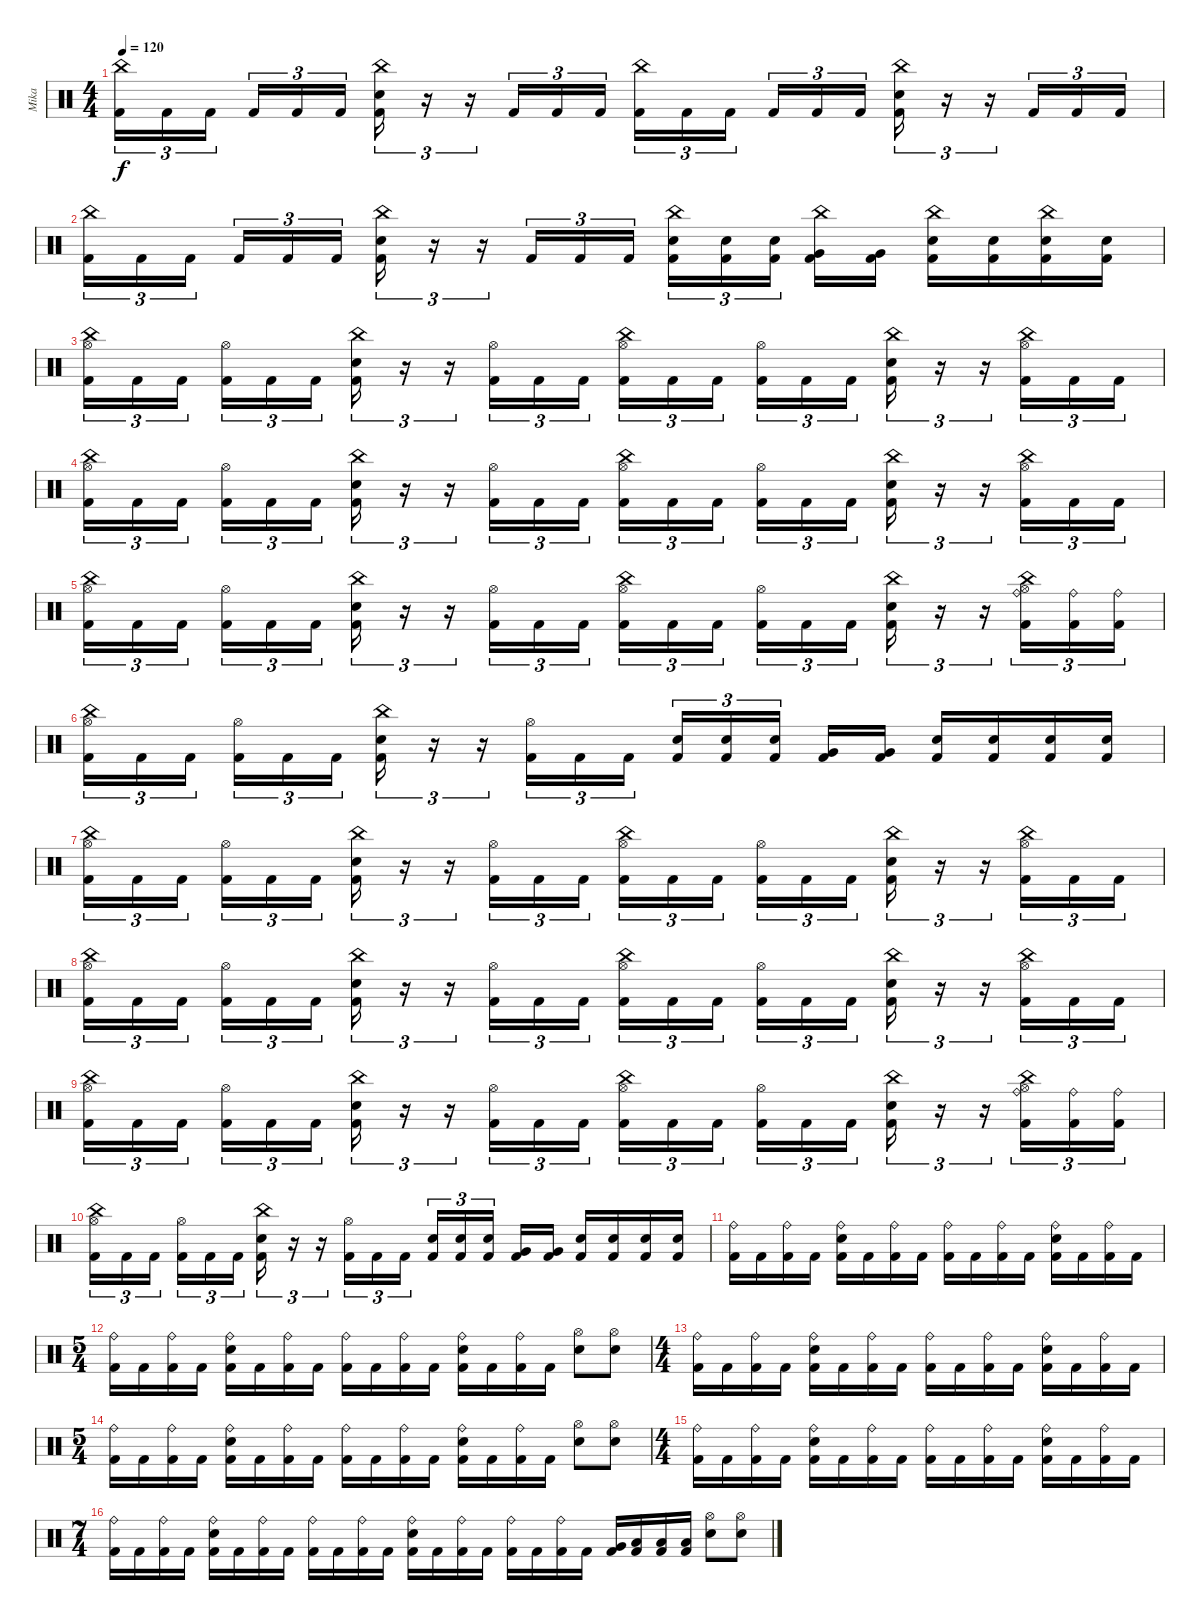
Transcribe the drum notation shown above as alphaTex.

\track ("Mika" "Mika") {instrument percussion}
\staff {score}
\articulation defaults
\ts (4 4)
\tempo 120
\clef neutral
\ks c
("China (hit)" "Kick (hit) 2").16{tu (3 2) dy f} "Kick (hit) 2".16{tu (3 2)} "Kick (hit) 2".16{tu (3 2) beam splitsecondary} "Kick (hit) 2".16{tu (3 2)} "Kick (hit) 2".16{tu (3 2)} "Kick (hit) 2".16{tu (3 2)} ("China (hit)" "Electric Snare (hit)" "Kick (hit) 2").16{tu (3 2)} r.16{tu (3 2)} r.16{tu (3 2)} "Kick (hit) 2".16{tu (3 2)} "Kick (hit) 2".16{tu (3 2)} "Kick (hit) 2".16{tu (3 2)} ("China (hit)" "Kick (hit) 2").16{tu (3 2)} "Kick (hit) 2".16{tu (3 2)} "Kick (hit) 2".16{tu (3 2) beam splitsecondary} "Kick (hit) 2".16{tu (3 2)} "Kick (hit) 2".16{tu (3 2)} "Kick (hit) 2".16{tu (3 2)} ("China (hit)" "Electric Snare (hit)" "Kick (hit) 2").16{tu (3 2)} r.16{tu (3 2)} r.16{tu (3 2)} "Kick (hit) 2".16{tu (3 2)} "Kick (hit) 2".16{tu (3 2)} "Kick (hit) 2".16{tu (3 2)} |
("China (hit)" "Kick (hit) 2").16{tu (3 2)} "Kick (hit) 2".16{tu (3 2)} "Kick (hit) 2".16{tu (3 2) beam splitsecondary} "Kick (hit) 2".16{tu (3 2)} "Kick (hit) 2".16{tu (3 2)} "Kick (hit) 2".16{tu (3 2)} ("China (hit)" "Electric Snare (hit)" "Kick (hit) 2").16{tu (3 2)} r.16{tu (3 2)} r.16{tu (3 2)} "Kick (hit) 2".16{tu (3 2)} "Kick (hit) 2".16{tu (3 2)} "Kick (hit) 2".16{tu (3 2)} ("China (hit)" "Electric Snare (hit)" "Kick (hit) 2").16{tu (3 2)} ("Electric Snare (hit)" "Kick (hit) 2").16{tu (3 2)} ("Electric Snare (hit)" "Kick (hit) 2").16{tu (3 2) beam splitsecondary} ("China (hit)" "Very Low Tom (hit)" "Kick (hit) 2").16 ("Very Low Tom (hit)" "Kick (hit) 2").16 ("China (hit)" "Electric Snare (hit)" "Kick (hit) 2").16 ("Electric Snare (hit)" "Kick (hit) 2").16 ("China (hit)" "Snare (hit) 2" "Kick (hit) 2").16 ("Snare (hit) 2" "Kick (hit) 2").16 |
("China (hit)" "Hi-Hat (open)" "Kick (hit) 2").16{tu (3 2)} "Kick (hit) 2".16{tu (3 2)} "Kick (hit) 2".16{tu (3 2) beam splitsecondary} ("Hi-Hat (open)" "Kick (hit) 2").16{tu (3 2)} "Kick (hit) 2".16{tu (3 2)} "Kick (hit) 2".16{tu (3 2)} ("Electric Snare (hit)" "China (hit)" "Kick (hit) 2").16{tu (3 2)} r.16{tu (3 2)} r.16{tu (3 2)} ("Hi-Hat (open)" "Kick (hit) 2").16{tu (3 2)} "Kick (hit) 2".16{tu (3 2)} "Kick (hit) 2".16{tu (3 2)} ("China (hit)" "Hi-Hat (open)" "Kick (hit) 2").16{tu (3 2)} "Kick (hit) 2".16{tu (3 2)} "Kick (hit) 2".16{tu (3 2) beam splitsecondary} ("Hi-Hat (open)" "Kick (hit) 2").16{tu (3 2)} "Kick (hit) 2".16{tu (3 2)} "Kick (hit) 2".16{tu (3 2)} ("Electric Snare (hit)" "China (hit)" "Kick (hit) 2").16{tu (3 2)} r.16{tu (3 2)} r.16{tu (3 2)} ("China (hit)" "Hi-Hat (open)" "Kick (hit) 2").16{tu (3 2)} "Kick (hit) 2".16{tu (3 2)} "Kick (hit) 2".16{tu (3 2)} |
("China (hit)" "Hi-Hat (open)" "Kick (hit) 2").16{tu (3 2)} "Kick (hit) 2".16{tu (3 2)} "Kick (hit) 2".16{tu (3 2) beam splitsecondary} ("Hi-Hat (open)" "Kick (hit) 2").16{tu (3 2)} "Kick (hit) 2".16{tu (3 2)} "Kick (hit) 2".16{tu (3 2)} ("Electric Snare (hit)" "China (hit)" "Kick (hit) 2").16{tu (3 2)} r.16{tu (3 2)} r.16{tu (3 2)} ("Hi-Hat (open)" "Kick (hit) 2").16{tu (3 2)} "Kick (hit) 2".16{tu (3 2)} "Kick (hit) 2".16{tu (3 2)} ("China (hit)" "Hi-Hat (open)" "Kick (hit) 2").16{tu (3 2)} "Kick (hit) 2".16{tu (3 2)} "Kick (hit) 2".16{tu (3 2) beam splitsecondary} ("Hi-Hat (open)" "Kick (hit) 2").16{tu (3 2)} "Kick (hit) 2".16{tu (3 2)} "Kick (hit) 2".16{tu (3 2)} ("Electric Snare (hit)" "China (hit)" "Kick (hit) 2").16{tu (3 2)} r.16{tu (3 2)} r.16{tu (3 2)} ("China (hit)" "Hi-Hat (open)" "Kick (hit) 2").16{tu (3 2)} "Kick (hit) 2".16{tu (3 2)} "Kick (hit) 2".16{tu (3 2)} |
("China (hit)" "Hi-Hat (open)" "Kick (hit) 2").16{tu (3 2)} "Kick (hit) 2".16{tu (3 2)} "Kick (hit) 2".16{tu (3 2) beam splitsecondary} ("Hi-Hat (open)" "Kick (hit) 2").16{tu (3 2)} "Kick (hit) 2".16{tu (3 2)} "Kick (hit) 2".16{tu (3 2)} ("Electric Snare (hit)" "China (hit)" "Kick (hit) 2").16{tu (3 2)} r.16{tu (3 2)} r.16{tu (3 2)} ("Hi-Hat (open)" "Kick (hit) 2").16{tu (3 2)} "Kick (hit) 2".16{tu (3 2)} "Kick (hit) 2".16{tu (3 2)} ("China (hit)" "Hi-Hat (open)" "Kick (hit) 2").16{tu (3 2)} "Kick (hit) 2".16{tu (3 2)} "Kick (hit) 2".16{tu (3 2) beam splitsecondary} ("Hi-Hat (open)" "Kick (hit) 2").16{tu (3 2)} "Kick (hit) 2".16{tu (3 2)} "Kick (hit) 2".16{tu (3 2)} ("Electric Snare (hit)" "China (hit)" "Kick (hit) 2").16{tu (3 2)} r.16{tu (3 2)} r.16{tu (3 2)} ("Ride (bell)" "China (hit)" "Hi-Hat (open)" "Kick (hit) 2").16{tu (3 2)} ("Ride (bell)" "Kick (hit) 2").16{tu (3 2)} ("Ride (bell)" "Kick (hit) 2").16{tu (3 2)} |
("China (hit)" "Hi-Hat (open)" "Kick (hit) 2").16{tu (3 2)} "Kick (hit) 2".16{tu (3 2)} "Kick (hit) 2".16{tu (3 2) beam splitsecondary} ("Hi-Hat (open)" "Kick (hit) 2").16{tu (3 2)} "Kick (hit) 2".16{tu (3 2)} "Kick (hit) 2".16{tu (3 2)} ("Electric Snare (hit)" "China (hit)" "Kick (hit) 2").16{tu (3 2)} r.16{tu (3 2)} r.16{tu (3 2)} ("Hi-Hat (open)" "Kick (hit) 2").16{tu (3 2)} "Kick (hit) 2".16{tu (3 2)} "Kick (hit) 2".16{tu (3 2)} ("Electric Snare (hit)" "Kick (hit) 2").16{tu (3 2)} ("Electric Snare (hit)" "Kick (hit) 2").16{tu (3 2)} ("Electric Snare (hit)" "Kick (hit) 2").16{tu (3 2) beam splitsecondary} ("Very Low Tom (hit)" "Kick (hit) 2").16 ("Very Low Tom (hit)" "Kick (hit) 2").16 ("Electric Snare (hit)" "Kick (hit) 2").16 ("Electric Snare (hit)" "Kick (hit) 2").16 ("Snare (hit) 2" "Kick (hit) 2").16 ("Snare (hit) 2" "Kick (hit) 2").16 |
("China (hit)" "Hi-Hat (open)" "Kick (hit) 2").16{tu (3 2)} "Kick (hit) 2".16{tu (3 2)} "Kick (hit) 2".16{tu (3 2) beam splitsecondary} ("Hi-Hat (open)" "Kick (hit) 2").16{tu (3 2)} "Kick (hit) 2".16{tu (3 2)} "Kick (hit) 2".16{tu (3 2)} ("Electric Snare (hit)" "China (hit)" "Kick (hit) 2").16{tu (3 2)} r.16{tu (3 2)} r.16{tu (3 2)} ("Hi-Hat (open)" "Kick (hit) 2").16{tu (3 2)} "Kick (hit) 2".16{tu (3 2)} "Kick (hit) 2".16{tu (3 2)} ("China (hit)" "Hi-Hat (open)" "Kick (hit) 2").16{tu (3 2)} "Kick (hit) 2".16{tu (3 2)} "Kick (hit) 2".16{tu (3 2) beam splitsecondary} ("Hi-Hat (open)" "Kick (hit) 2").16{tu (3 2)} "Kick (hit) 2".16{tu (3 2)} "Kick (hit) 2".16{tu (3 2)} ("Electric Snare (hit)" "China (hit)" "Kick (hit) 2").16{tu (3 2)} r.16{tu (3 2)} r.16{tu (3 2)} ("China (hit)" "Hi-Hat (open)" "Kick (hit) 2").16{tu (3 2)} "Kick (hit) 2".16{tu (3 2)} "Kick (hit) 2".16{tu (3 2)} |
("China (hit)" "Hi-Hat (open)" "Kick (hit) 2").16{tu (3 2)} "Kick (hit) 2".16{tu (3 2)} "Kick (hit) 2".16{tu (3 2) beam splitsecondary} ("Hi-Hat (open)" "Kick (hit) 2").16{tu (3 2)} "Kick (hit) 2".16{tu (3 2)} "Kick (hit) 2".16{tu (3 2)} ("Electric Snare (hit)" "China (hit)" "Kick (hit) 2").16{tu (3 2)} r.16{tu (3 2)} r.16{tu (3 2)} ("Hi-Hat (open)" "Kick (hit) 2").16{tu (3 2)} "Kick (hit) 2".16{tu (3 2)} "Kick (hit) 2".16{tu (3 2)} ("China (hit)" "Hi-Hat (open)" "Kick (hit) 2").16{tu (3 2)} "Kick (hit) 2".16{tu (3 2)} "Kick (hit) 2".16{tu (3 2) beam splitsecondary} ("Hi-Hat (open)" "Kick (hit) 2").16{tu (3 2)} "Kick (hit) 2".16{tu (3 2)} "Kick (hit) 2".16{tu (3 2)} ("Electric Snare (hit)" "China (hit)" "Kick (hit) 2").16{tu (3 2)} r.16{tu (3 2)} r.16{tu (3 2)} ("China (hit)" "Hi-Hat (open)" "Kick (hit) 2").16{tu (3 2)} "Kick (hit) 2".16{tu (3 2)} "Kick (hit) 2".16{tu (3 2)} |
("China (hit)" "Hi-Hat (open)" "Kick (hit) 2").16{tu (3 2)} "Kick (hit) 2".16{tu (3 2)} "Kick (hit) 2".16{tu (3 2) beam splitsecondary} ("Hi-Hat (open)" "Kick (hit) 2").16{tu (3 2)} "Kick (hit) 2".16{tu (3 2)} "Kick (hit) 2".16{tu (3 2)} ("Electric Snare (hit)" "China (hit)" "Kick (hit) 2").16{tu (3 2)} r.16{tu (3 2)} r.16{tu (3 2)} ("Hi-Hat (open)" "Kick (hit) 2").16{tu (3 2)} "Kick (hit) 2".16{tu (3 2)} "Kick (hit) 2".16{tu (3 2)} ("China (hit)" "Hi-Hat (open)" "Kick (hit) 2").16{tu (3 2)} "Kick (hit) 2".16{tu (3 2)} "Kick (hit) 2".16{tu (3 2) beam splitsecondary} ("Hi-Hat (open)" "Kick (hit) 2").16{tu (3 2)} "Kick (hit) 2".16{tu (3 2)} "Kick (hit) 2".16{tu (3 2)} ("Electric Snare (hit)" "China (hit)" "Kick (hit) 2").16{tu (3 2)} r.16{tu (3 2)} r.16{tu (3 2)} ("Ride (bell)" "China (hit)" "Hi-Hat (open)" "Kick (hit) 2").16{tu (3 2)} ("Ride (bell)" "Kick (hit) 2").16{tu (3 2)} ("Ride (bell)" "Kick (hit) 2").16{tu (3 2)} |
("China (hit)" "Hi-Hat (open)" "Kick (hit) 2").16{tu (3 2)} "Kick (hit) 2".16{tu (3 2)} "Kick (hit) 2".16{tu (3 2) beam splitsecondary} ("Hi-Hat (open)" "Kick (hit) 2").16{tu (3 2)} "Kick (hit) 2".16{tu (3 2)} "Kick (hit) 2".16{tu (3 2)} ("Electric Snare (hit)" "China (hit)" "Kick (hit) 2").16{tu (3 2)} r.16{tu (3 2)} r.16{tu (3 2)} ("Hi-Hat (open)" "Kick (hit) 2").16{tu (3 2)} "Kick (hit) 2".16{tu (3 2)} "Kick (hit) 2".16{tu (3 2)} ("Electric Snare (hit)" "Kick (hit) 2").16{tu (3 2)} ("Electric Snare (hit)" "Kick (hit) 2").16{tu (3 2)} ("Electric Snare (hit)" "Kick (hit) 2").16{tu (3 2) beam splitsecondary} ("Very Low Tom (hit)" "Kick (hit) 2").16 ("Very Low Tom (hit)" "Kick (hit) 2").16 ("Electric Snare (hit)" "Kick (hit) 2").16 ("Electric Snare (hit)" "Kick (hit) 2").16 ("Snare (hit) 2" "Kick (hit) 2").16 ("Snare (hit) 2" "Kick (hit) 2").16 |
("Ride (bell)" "Kick (hit) 2").16 "Kick (hit) 2".16 ("Ride (bell)" "Kick (hit) 2").16 "Kick (hit) 2".16 ("Ride (bell)" "Electric Snare (hit)" "Kick (hit) 2").16 "Kick (hit) 2".16 ("Ride (bell)" "Kick (hit) 2").16 "Kick (hit) 2".16 ("Ride (bell)" "Kick (hit) 2").16 "Kick (hit) 2".16 ("Ride (bell)" "Kick (hit) 2").16 "Kick (hit) 2".16 ("Ride (bell)" "Electric Snare (hit)" "Kick (hit) 2").16 "Kick (hit) 2".16 ("Ride (bell)" "Kick (hit) 2").16 "Kick (hit) 2".16 |
\ts (5 4)
("Ride (bell)" "Kick (hit) 2").16 "Kick (hit) 2".16 ("Ride (bell)" "Kick (hit) 2").16 "Kick (hit) 2".16 ("Ride (bell)" "Electric Snare (hit)" "Kick (hit) 2").16 "Kick (hit) 2".16 ("Ride (bell)" "Kick (hit) 2").16 "Kick (hit) 2".16 ("Ride (bell)" "Kick (hit) 2").16 "Kick (hit) 2".16 ("Ride (bell)" "Kick (hit) 2").16 "Kick (hit) 2".16 ("Ride (bell)" "Electric Snare (hit)" "Kick (hit) 2").16 "Kick (hit) 2".16 ("Ride (bell)" "Kick (hit) 2").16 "Kick (hit) 2".16 ("Hi-Hat (open)" "Electric Snare (hit)").8 ("Hi-Hat (open)" "Electric Snare (hit)").8 |
\ts (4 4)
("Ride (bell)" "Kick (hit) 2").16 "Kick (hit) 2".16 ("Ride (bell)" "Kick (hit) 2").16 "Kick (hit) 2".16 ("Ride (bell)" "Electric Snare (hit)" "Kick (hit) 2").16 "Kick (hit) 2".16 ("Ride (bell)" "Kick (hit) 2").16 "Kick (hit) 2".16 ("Ride (bell)" "Kick (hit) 2").16 "Kick (hit) 2".16 ("Ride (bell)" "Kick (hit) 2").16 "Kick (hit) 2".16 ("Ride (bell)" "Electric Snare (hit)" "Kick (hit) 2").16 "Kick (hit) 2".16 ("Ride (bell)" "Kick (hit) 2").16 "Kick (hit) 2".16 |
\ts (5 4)
("Ride (bell)" "Kick (hit) 2").16 "Kick (hit) 2".16 ("Ride (bell)" "Kick (hit) 2").16 "Kick (hit) 2".16 ("Ride (bell)" "Electric Snare (hit)" "Kick (hit) 2").16 "Kick (hit) 2".16 ("Ride (bell)" "Kick (hit) 2").16 "Kick (hit) 2".16 ("Ride (bell)" "Kick (hit) 2").16 "Kick (hit) 2".16 ("Ride (bell)" "Kick (hit) 2").16 "Kick (hit) 2".16 ("Ride (bell)" "Electric Snare (hit)" "Kick (hit) 2").16 "Kick (hit) 2".16 ("Ride (bell)" "Kick (hit) 2").16 "Kick (hit) 2".16 ("Hi-Hat (open)" "Electric Snare (hit)").8 ("Hi-Hat (open)" "Electric Snare (hit)").8 |
\ts (4 4)
("Ride (bell)" "Kick (hit) 2").16 "Kick (hit) 2".16 ("Ride (bell)" "Kick (hit) 2").16 "Kick (hit) 2".16 ("Ride (bell)" "Electric Snare (hit)" "Kick (hit) 2").16 "Kick (hit) 2".16 ("Ride (bell)" "Kick (hit) 2").16 "Kick (hit) 2".16 ("Ride (bell)" "Kick (hit) 2").16 "Kick (hit) 2".16 ("Ride (bell)" "Kick (hit) 2").16 "Kick (hit) 2".16 ("Ride (bell)" "Electric Snare (hit)" "Kick (hit) 2").16 "Kick (hit) 2".16 ("Ride (bell)" "Kick (hit) 2").16 "Kick (hit) 2".16 |
\ts (7 4)
("Ride (bell)" "Kick (hit) 2").16 "Kick (hit) 2".16 ("Ride (bell)" "Kick (hit) 2").16 "Kick (hit) 2".16 ("Ride (bell)" "Electric Snare (hit)" "Kick (hit) 2").16 "Kick (hit) 2".16 ("Ride (bell)" "Kick (hit) 2").16 "Kick (hit) 2".16 ("Ride (bell)" "Kick (hit) 2").16 "Kick (hit) 2".16 ("Ride (bell)" "Kick (hit) 2").16 "Kick (hit) 2".16 ("Ride (bell)" "Electric Snare (hit)" "Kick (hit) 2").16 "Kick (hit) 2".16 ("Ride (bell)" "Kick (hit) 2").16 "Kick (hit) 2".16 ("Ride (bell)" "Kick (hit) 2").16 "Kick (hit) 2".16 ("Ride (bell)" "Kick (hit) 2").16 "Kick (hit) 2".16 ("Very Low Tom (hit)" "Kick (hit) 2").16 ("Low Floor Tom (hit)" "Kick (hit) 2").16 ("Low Tom (hit)" "Kick (hit) 2").16 ("Low Floor Tom (hit)" "Kick (hit) 2").16 ("Hi-Hat (open)" "Electric Snare (hit)").8 ("Hi-Hat (open)" "Electric Snare (hit)").8
